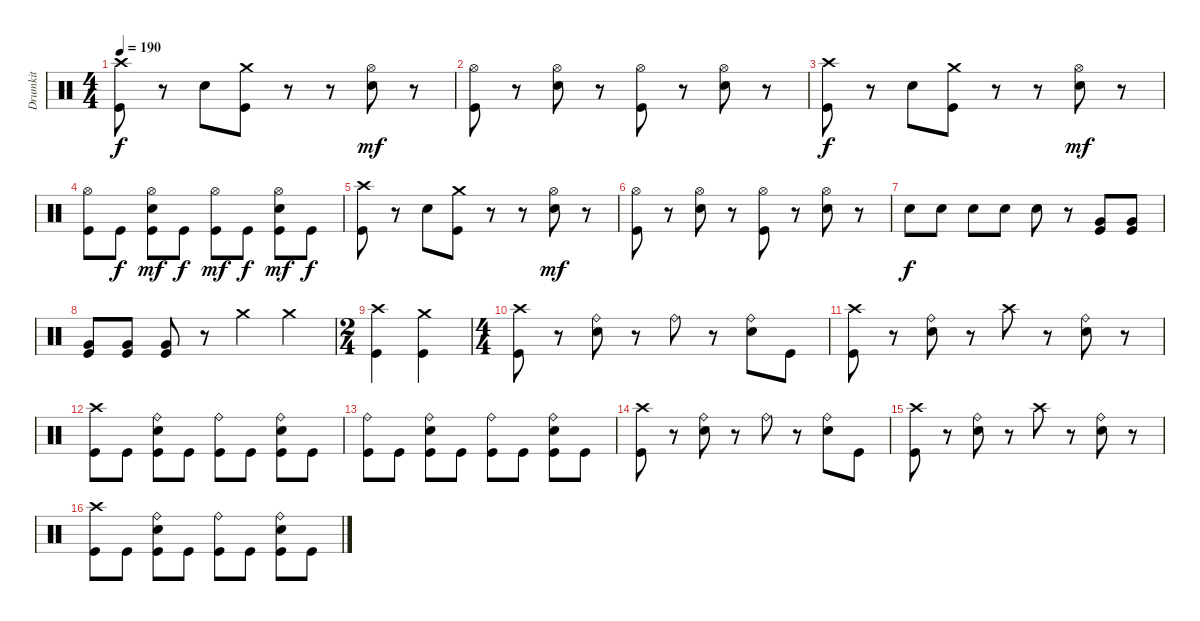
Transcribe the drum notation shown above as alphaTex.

\track ("Drumkit" "Drumkit") {instrument percussion}
\staff {score}
\articulation defaults
\ts (4 4)
\tempo 190
\clef neutral
\ks c
("Crash high (hit)" "Kick (hit)").8{dy f} r.8 "Snare (hit) 2".8 ("Crash medium (hit)" "Kick (hit)").8 r.8 r.8 ("Hi-Hat (open)" "Snare (hit) 2").8{dy mf} r.8 |
("Hi-Hat (open)" "Kick (hit)").8 r.8 ("Hi-Hat (open)" "Snare (hit) 2").8 r.8 ("Hi-Hat (open)" "Kick (hit)").8 r.8 ("Hi-Hat (open)" "Snare (hit) 2").8 r.8 |
("Crash high (hit)" "Kick (hit)").8{dy f} r.8 "Snare (hit) 2".8 ("Crash medium (hit)" "Kick (hit)").8 r.8 r.8 ("Hi-Hat (open)" "Snare (hit) 2").8{dy mf} r.8 |
("Hi-Hat (open)" "Kick (hit)").8 "Kick (hit)".8{dy f} ("Hi-Hat (open)" "Snare (hit) 2" "Kick (hit)").8{dy mf} "Kick (hit)".8{dy f} ("Hi-Hat (open)" "Kick (hit)").8{dy mf} "Kick (hit)".8{dy f} ("Hi-Hat (open)" "Snare (hit) 2" "Kick (hit)").8{dy mf} "Kick (hit)".8{dy f} |
("Crash high (hit)" "Kick (hit)").8 r.8 "Snare (hit) 2".8 ("Crash medium (hit)" "Kick (hit)").8 r.8 r.8 ("Hi-Hat (open)" "Snare (hit) 2").8{dy mf} r.8 |
("Hi-Hat (open)" "Kick (hit)").8 r.8 ("Hi-Hat (open)" "Snare (hit) 2").8 r.8 ("Hi-Hat (open)" "Kick (hit)").8 r.8 ("Hi-Hat (open)" "Snare (hit) 2").8 r.8 |
"Snare (hit) 2".8{dy f} "Snare (hit) 2".8 "Snare (hit) 2".8 "Snare (hit) 2".8 "Snare (hit) 2".8 r.8 ("Kick (hit)" "Very Low Tom (hit)").8 ("Kick (hit)" "Very Low Tom (hit)").8 |
("Kick (hit)" "Very Low Tom (hit)").8 ("Kick (hit)" "Very Low Tom (hit)").8 ("Kick (hit)" "Very Low Tom (hit)").8 r.8 "Crash medium (hit)".4 "Crash medium (hit)".4 |
\ts (2 4)
("Crash high (hit)" "Kick (hit)").4 ("Crash medium (hit)" "Kick (hit)").4 |
\ts (4 4)
("Crash high (hit)" "Kick (hit)").8 r.8 ("Ride (bell)" "Snare (hit) 2").8 r.8 "Ride (bell)".8 r.8 ("Ride (bell)" "Snare (hit) 2").8 "Kick (hit)".8 |
("Crash high (hit)" "Kick (hit)").8 r.8 ("Ride (bell)" "Snare (hit) 2").8 r.8 "Crash high (hit)".8 r.8 ("Ride (bell)" "Snare (hit) 2").8 r.8 |
("Crash high (hit)" "Kick (hit)").8 "Kick (hit)".8 ("Ride (bell)" "Snare (hit) 2" "Kick (hit)").8 "Kick (hit)".8 ("Ride (bell)" "Kick (hit)").8 "Kick (hit)".8 ("Ride (bell)" "Snare (hit) 2" "Kick (hit)").8 "Kick (hit)".8 |
("Ride (bell)" "Kick (hit)").8 "Kick (hit)".8 ("Ride (bell)" "Snare (hit) 2" "Kick (hit)").8 "Kick (hit)".8 ("Ride (bell)" "Kick (hit)").8 "Kick (hit)".8 ("Ride (bell)" "Snare (hit) 2" "Kick (hit)").8 "Kick (hit)".8 |
("Crash high (hit)" "Kick (hit)").8 r.8 ("Ride (bell)" "Snare (hit) 2").8 r.8 "Ride (bell)".8 r.8 ("Ride (bell)" "Snare (hit) 2").8 "Kick (hit)".8 |
("Crash high (hit)" "Kick (hit)").8 r.8 ("Ride (bell)" "Snare (hit) 2").8 r.8 "Crash high (hit)".8 r.8 ("Ride (bell)" "Snare (hit) 2").8 r.8 |
("Crash high (hit)" "Kick (hit)").8 "Kick (hit)".8 ("Ride (bell)" "Snare (hit) 2" "Kick (hit)").8 "Kick (hit)".8 ("Ride (bell)" "Kick (hit)").8 "Kick (hit)".8 ("Ride (bell)" "Snare (hit) 2" "Kick (hit)").8 "Kick (hit)".8
